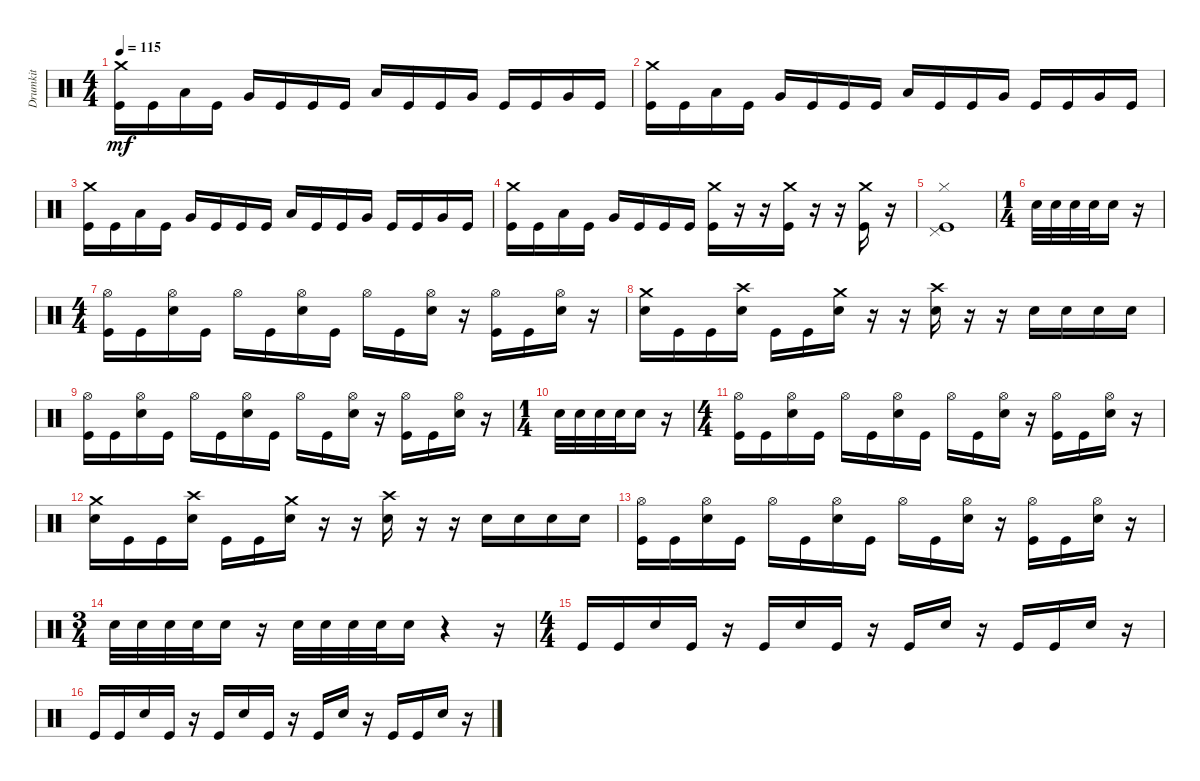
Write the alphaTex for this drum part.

\track ("Drumkit" "Drumkit") {instrument percussion}
\staff {score}
\articulation defaults
\ts (4 4)
\tempo 115
\clef neutral
\ks c
("Kick (hit)" "Crash medium (hit)").16{dy mf} "Kick (hit)".16 "Low Tom (hit)".16 "Kick (hit)".16 "Very Low Tom (hit)".16 "Kick (hit)".16 "Kick (hit)".16 "Kick (hit)".16 "Low Tom (hit)".16 "Kick (hit)".16 "Kick (hit)".16 "Very Low Tom (hit)".16 "Kick (hit)".16 "Kick (hit)".16 "Very Low Tom (hit)".16 "Kick (hit)".16 |
("Kick (hit)" "Crash medium (hit)").16 "Kick (hit)".16 "Low Tom (hit)".16 "Kick (hit)".16 "Very Low Tom (hit)".16 "Kick (hit)".16 "Kick (hit)".16 "Kick (hit)".16 "Low Tom (hit)".16 "Kick (hit)".16 "Kick (hit)".16 "Very Low Tom (hit)".16 "Kick (hit)".16 "Kick (hit)".16 "Very Low Tom (hit)".16 "Kick (hit)".16 |
("Kick (hit)" "Crash medium (hit)").16 "Kick (hit)".16 "Low Tom (hit)".16 "Kick (hit)".16 "Very Low Tom (hit)".16 "Kick (hit)".16 "Kick (hit)".16 "Kick (hit)".16 "Low Tom (hit)".16 "Kick (hit)".16 "Kick (hit)".16 "Very Low Tom (hit)".16 "Kick (hit)".16 "Kick (hit)".16 "Very Low Tom (hit)".16 "Kick (hit)".16 |
("Kick (hit)" "Crash medium (hit)").16 "Kick (hit)".16 "Low Tom (hit)".16 "Kick (hit)".16 "Very Low Tom (hit)".16 "Kick (hit)".16 "Kick (hit)".16 "Kick (hit)".16 ("Kick (hit)" "Crash medium (hit)").16 r.16 r.16 ("Kick (hit)" "Crash medium (hit)").16 r.16 r.16 ("Kick (hit)" "Crash medium (hit)").16 r.16 |
("Pedal Hi-Hat (hit)" "Kick (hit)" "Hi-Hat (closed)").1 |
\ts (1 4)
"Snare (hit) 2".32 "Snare (hit) 2".32 "Snare (hit) 2".32 "Snare (hit) 2".32 "Snare (hit) 2".16 r.16 |
\ts (4 4)
("Kick (hit)" "Hi-Hat (open)").16 "Kick (hit)".16 ("Snare (hit) 2" "Hi-Hat (open)").16 "Kick (hit)".16 "Hi-Hat (open)".16 "Kick (hit)".16 ("Snare (hit) 2" "Hi-Hat (open)").16 "Kick (hit)".16 "Hi-Hat (open)".16 "Kick (hit)".16 ("Snare (hit) 2" "Hi-Hat (open)").16 r.16 ("Kick (hit)" "Hi-Hat (open)").16 "Kick (hit)".16 ("Snare (hit) 2" "Hi-Hat (open)").16 r.16 |
("Snare (hit) 2" "Crash medium (hit)").16 "Kick (hit)".16 "Kick (hit)".16 ("Snare (hit) 2" "Crash high (hit)").16 "Kick (hit)".16 "Kick (hit)".16 ("Snare (hit) 2" "Crash medium (hit)").16 r.16 r.16 ("Snare (hit) 2" "Crash high (hit)").16 r.16 r.16 "Snare (hit) 2".16 "Snare (hit) 2".16 "Snare (hit) 2".16 "Snare (hit) 2".16 |
("Kick (hit)" "Hi-Hat (open)").16 "Kick (hit)".16 ("Snare (hit) 2" "Hi-Hat (open)").16 "Kick (hit)".16 "Hi-Hat (open)".16 "Kick (hit)".16 ("Snare (hit) 2" "Hi-Hat (open)").16 "Kick (hit)".16 "Hi-Hat (open)".16 "Kick (hit)".16 ("Snare (hit) 2" "Hi-Hat (open)").16 r.16 ("Kick (hit)" "Hi-Hat (open)").16 "Kick (hit)".16 ("Snare (hit) 2" "Hi-Hat (open)").16 r.16 |
\ts (1 4)
"Snare (hit) 2".32 "Snare (hit) 2".32 "Snare (hit) 2".32 "Snare (hit) 2".32 "Snare (hit) 2".16 r.16 |
\ts (4 4)
("Kick (hit)" "Hi-Hat (open)").16 "Kick (hit)".16 ("Snare (hit) 2" "Hi-Hat (open)").16 "Kick (hit)".16 "Hi-Hat (open)".16 "Kick (hit)".16 ("Snare (hit) 2" "Hi-Hat (open)").16 "Kick (hit)".16 "Hi-Hat (open)".16 "Kick (hit)".16 ("Snare (hit) 2" "Hi-Hat (open)").16 r.16 ("Kick (hit)" "Hi-Hat (open)").16 "Kick (hit)".16 ("Snare (hit) 2" "Hi-Hat (open)").16 r.16 |
("Snare (hit) 2" "Crash medium (hit)").16 "Kick (hit)".16 "Kick (hit)".16 ("Snare (hit) 2" "Crash high (hit)").16 "Kick (hit)".16 "Kick (hit)".16 ("Snare (hit) 2" "Crash medium (hit)").16 r.16 r.16 ("Snare (hit) 2" "Crash high (hit)").16 r.16 r.16 "Snare (hit) 2".16 "Snare (hit) 2".16 "Snare (hit) 2".16 "Snare (hit) 2".16 |
("Kick (hit)" "Hi-Hat (open)").16 "Kick (hit)".16 ("Snare (hit) 2" "Hi-Hat (open)").16 "Kick (hit)".16 "Hi-Hat (open)".16 "Kick (hit)".16 ("Snare (hit) 2" "Hi-Hat (open)").16 "Kick (hit)".16 "Hi-Hat (open)".16 "Kick (hit)".16 ("Snare (hit) 2" "Hi-Hat (open)").16 r.16 ("Kick (hit)" "Hi-Hat (open)").16 "Kick (hit)".16 ("Snare (hit) 2" "Hi-Hat (open)").16 r.16 |
\ts (3 4)
"Snare (hit) 2".32 "Snare (hit) 2".32 "Snare (hit) 2".32 "Snare (hit) 2".32 "Snare (hit) 2".16 r.16 "Snare (hit) 2".32 "Snare (hit) 2".32 "Snare (hit) 2".32 "Snare (hit) 2".32 "Snare (hit) 2".16 r.4 r.16 |
\ts (4 4)
"Kick (hit)".16 "Kick (hit)".16 "Snare (hit) 2".16 "Kick (hit)".16 r.16 "Kick (hit)".16 "Snare (hit) 2".16 "Kick (hit)".16 r.16 "Kick (hit)".16 "Snare (hit) 2".16 r.16 "Kick (hit)".16 "Kick (hit)".16 "Snare (hit) 2".16 r.16 |
"Kick (hit)".16 "Kick (hit)".16 "Snare (hit) 2".16 "Kick (hit)".16 r.16 "Kick (hit)".16 "Snare (hit) 2".16 "Kick (hit)".16 r.16 "Kick (hit)".16 "Snare (hit) 2".16 r.16 "Kick (hit)".16 "Kick (hit)".16 "Snare (hit) 2".16 r.16
